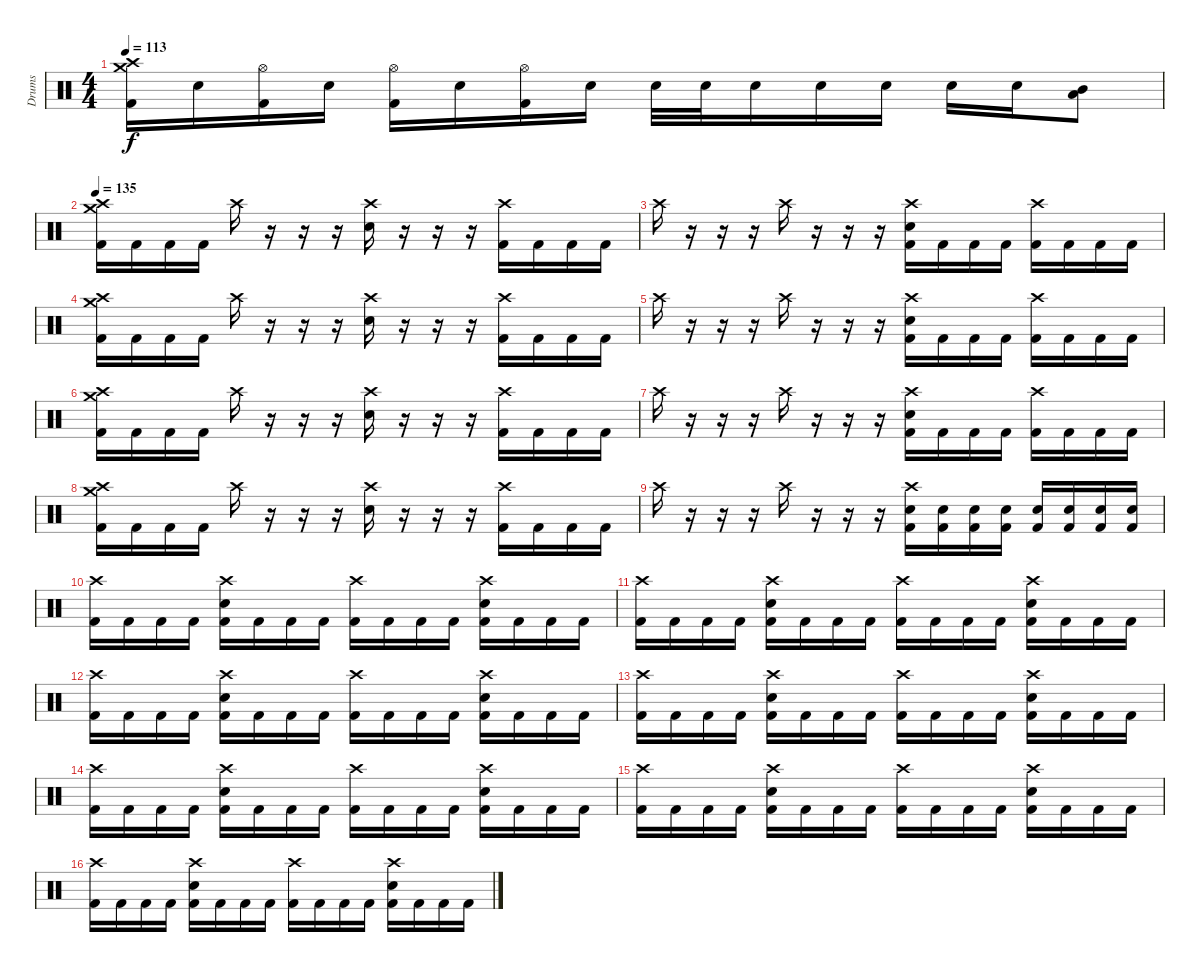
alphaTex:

\track ("Drums" "Drums") {instrument percussion}
\staff {score}
\articulation defaults
\ts (4 4)
\tempo 113
\clef neutral
\ks c
("Crash high (hit)" "Crash medium (hit)" "Kick (hit) 2").16{dy f} "Snare (hit) 2".16 ("Hi-Hat (open)" "Kick (hit) 2").16 "Snare (hit) 2".16 ("Hi-Hat (open)" "Kick (hit) 2").16 "Snare (hit) 2".16 ("Hi-Hat (open)" "Kick (hit) 2").16 "Snare (hit) 2".16 "Snare (hit) 2".32 "Snare (hit) 2".32 "Snare (hit) 2".16 "Snare (hit) 2".16 "Snare (hit) 2".16 "Snare (hit) 2".16 "Snare (hit) 2".16 ("Low Tom (hit)" "Mid Tom (hit)").8 |
\tempo 135
("Crash high (hit)" "Crash medium (hit)" "Kick (hit) 2").16 "Kick (hit) 2".16 "Kick (hit) 2".16 "Kick (hit) 2".16 "Crash high (hit)".16 r.16 r.16 r.16 ("Crash high (hit)" "Snare (hit) 2").16 r.16 r.16 r.16 ("Crash high (hit)" "Kick (hit) 2").16 "Kick (hit) 2".16 "Kick (hit) 2".16 "Kick (hit) 2".16 |
"Crash high (hit)".16 r.16 r.16 r.16 "Crash high (hit)".16 r.16 r.16 r.16 ("Crash high (hit)" "Snare (hit) 2" "Kick (hit) 2").16 "Kick (hit) 2".16 "Kick (hit) 2".16 "Kick (hit) 2".16 ("Crash high (hit)" "Kick (hit) 2").16 "Kick (hit) 2".16 "Kick (hit) 2".16 "Kick (hit) 2".16 |
("Crash high (hit)" "Crash medium (hit)" "Kick (hit) 2").16 "Kick (hit) 2".16 "Kick (hit) 2".16 "Kick (hit) 2".16 "Crash high (hit)".16 r.16 r.16 r.16 ("Crash high (hit)" "Snare (hit) 2").16 r.16 r.16 r.16 ("Crash high (hit)" "Kick (hit) 2").16 "Kick (hit) 2".16 "Kick (hit) 2".16 "Kick (hit) 2".16 |
"Crash high (hit)".16 r.16 r.16 r.16 "Crash high (hit)".16 r.16 r.16 r.16 ("Crash high (hit)" "Snare (hit) 2" "Kick (hit) 2").16 "Kick (hit) 2".16 "Kick (hit) 2".16 "Kick (hit) 2".16 ("Crash high (hit)" "Kick (hit) 2").16 "Kick (hit) 2".16 "Kick (hit) 2".16 "Kick (hit) 2".16 |
("Crash high (hit)" "Crash medium (hit)" "Kick (hit) 2").16 "Kick (hit) 2".16 "Kick (hit) 2".16 "Kick (hit) 2".16 "Crash high (hit)".16 r.16 r.16 r.16 ("Crash high (hit)" "Snare (hit) 2").16 r.16 r.16 r.16 ("Crash high (hit)" "Kick (hit) 2").16 "Kick (hit) 2".16 "Kick (hit) 2".16 "Kick (hit) 2".16 |
"Crash high (hit)".16 r.16 r.16 r.16 "Crash high (hit)".16 r.16 r.16 r.16 ("Crash high (hit)" "Snare (hit) 2" "Kick (hit) 2").16 "Kick (hit) 2".16 "Kick (hit) 2".16 "Kick (hit) 2".16 ("Crash high (hit)" "Kick (hit) 2").16 "Kick (hit) 2".16 "Kick (hit) 2".16 "Kick (hit) 2".16 |
("Crash high (hit)" "Crash medium (hit)" "Kick (hit) 2").16 "Kick (hit) 2".16 "Kick (hit) 2".16 "Kick (hit) 2".16 "Crash high (hit)".16 r.16 r.16 r.16 ("Crash high (hit)" "Snare (hit) 2").16 r.16 r.16 r.16 ("Crash high (hit)" "Kick (hit) 2").16 "Kick (hit) 2".16 "Kick (hit) 2".16 "Kick (hit) 2".16 |
"Crash high (hit)".16 r.16 r.16 r.16 "Crash high (hit)".16 r.16 r.16 r.16 ("Crash high (hit)" "Snare (hit) 2" "Kick (hit) 2").16 ("Snare (hit) 2" "Kick (hit) 2").16 ("Snare (hit) 2" "Kick (hit) 2").16 ("Snare (hit) 2" "Kick (hit) 2").16 ("Snare (hit) 2" "Kick (hit) 2").16 ("Snare (hit) 2" "Kick (hit) 2").16 ("Snare (hit) 2" "Kick (hit) 2").16 ("Snare (hit) 2" "Kick (hit) 2").16 |
("Crash high (hit)" "Kick (hit) 2").16 "Kick (hit) 2".16 "Kick (hit) 2".16 "Kick (hit) 2".16 ("Crash high (hit)" "Snare (hit) 2" "Kick (hit) 2").16 "Kick (hit) 2".16 "Kick (hit) 2".16 "Kick (hit) 2".16 ("Crash high (hit)" "Kick (hit) 2").16 "Kick (hit) 2".16 "Kick (hit) 2".16 "Kick (hit) 2".16 ("Crash high (hit)" "Snare (hit) 2" "Kick (hit) 2").16 "Kick (hit) 2".16 "Kick (hit) 2".16 "Kick (hit) 2".16 |
("Crash high (hit)" "Kick (hit) 2").16 "Kick (hit) 2".16 "Kick (hit) 2".16 "Kick (hit) 2".16 ("Crash high (hit)" "Snare (hit) 2" "Kick (hit) 2").16 "Kick (hit) 2".16 "Kick (hit) 2".16 "Kick (hit) 2".16 ("Crash high (hit)" "Kick (hit) 2").16 "Kick (hit) 2".16 "Kick (hit) 2".16 "Kick (hit) 2".16 ("Crash high (hit)" "Snare (hit) 2" "Kick (hit) 2").16 "Kick (hit) 2".16 "Kick (hit) 2".16 "Kick (hit) 2".16 |
("Crash high (hit)" "Kick (hit) 2").16 "Kick (hit) 2".16 "Kick (hit) 2".16 "Kick (hit) 2".16 ("Crash high (hit)" "Snare (hit) 2" "Kick (hit) 2").16 "Kick (hit) 2".16 "Kick (hit) 2".16 "Kick (hit) 2".16 ("Crash high (hit)" "Kick (hit) 2").16 "Kick (hit) 2".16 "Kick (hit) 2".16 "Kick (hit) 2".16 ("Crash high (hit)" "Snare (hit) 2" "Kick (hit) 2").16 "Kick (hit) 2".16 "Kick (hit) 2".16 "Kick (hit) 2".16 |
("Crash high (hit)" "Kick (hit) 2").16 "Kick (hit) 2".16 "Kick (hit) 2".16 "Kick (hit) 2".16 ("Crash high (hit)" "Snare (hit) 2" "Kick (hit) 2").16 "Kick (hit) 2".16 "Kick (hit) 2".16 "Kick (hit) 2".16 ("Crash high (hit)" "Kick (hit) 2").16 "Kick (hit) 2".16 "Kick (hit) 2".16 "Kick (hit) 2".16 ("Crash high (hit)" "Snare (hit) 2" "Kick (hit) 2").16 "Kick (hit) 2".16 "Kick (hit) 2".16 "Kick (hit) 2".16 |
("Crash high (hit)" "Kick (hit) 2").16 "Kick (hit) 2".16 "Kick (hit) 2".16 "Kick (hit) 2".16 ("Crash high (hit)" "Snare (hit) 2" "Kick (hit) 2").16 "Kick (hit) 2".16 "Kick (hit) 2".16 "Kick (hit) 2".16 ("Crash high (hit)" "Kick (hit) 2").16 "Kick (hit) 2".16 "Kick (hit) 2".16 "Kick (hit) 2".16 ("Crash high (hit)" "Snare (hit) 2" "Kick (hit) 2").16 "Kick (hit) 2".16 "Kick (hit) 2".16 "Kick (hit) 2".16 |
("Crash high (hit)" "Kick (hit) 2").16 "Kick (hit) 2".16 "Kick (hit) 2".16 "Kick (hit) 2".16 ("Crash high (hit)" "Snare (hit) 2" "Kick (hit) 2").16 "Kick (hit) 2".16 "Kick (hit) 2".16 "Kick (hit) 2".16 ("Crash high (hit)" "Kick (hit) 2").16 "Kick (hit) 2".16 "Kick (hit) 2".16 "Kick (hit) 2".16 ("Crash high (hit)" "Snare (hit) 2" "Kick (hit) 2").16 "Kick (hit) 2".16 "Kick (hit) 2".16 "Kick (hit) 2".16 |
("Crash high (hit)" "Kick (hit) 2").16 "Kick (hit) 2".16 "Kick (hit) 2".16 "Kick (hit) 2".16 ("Crash high (hit)" "Snare (hit) 2" "Kick (hit) 2").16 "Kick (hit) 2".16 "Kick (hit) 2".16 "Kick (hit) 2".16 ("Crash high (hit)" "Kick (hit) 2").16 "Kick (hit) 2".16 "Kick (hit) 2".16 "Kick (hit) 2".16 ("Crash high (hit)" "Snare (hit) 2" "Kick (hit) 2").16 "Kick (hit) 2".16 "Kick (hit) 2".16 "Kick (hit) 2".16
